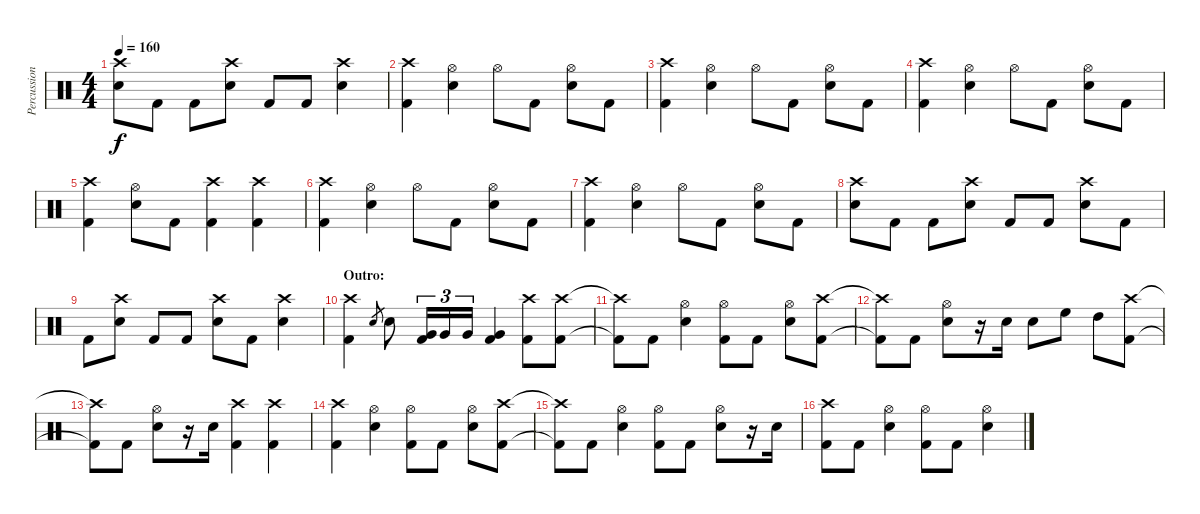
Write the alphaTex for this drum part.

\track ("Percussion" "Percussion") {instrument percussion}
\staff {score}
\articulation defaults
\ts (4 4)
\tempo 160
\clef neutral
\ks c
("Crash high (hit)" "Snare (hit) 2").8{dy f} "Kick (hit) 2".8 "Kick (hit) 2".8 ("Crash high (hit)" "Snare (hit) 2").8 "Kick (hit) 2".8 "Kick (hit) 2".8 ("Crash high (hit)" "Snare (hit) 2").4 |
("Crash high (hit)" "Kick (hit) 2").4 ("Hi-Hat (open)" "Snare (hit) 2").4 "Hi-Hat (open)".8 "Kick (hit) 2".8 ("Hi-Hat (open)" "Snare (hit) 2").8 "Kick (hit) 2".8 |
("Crash high (hit)" "Kick (hit) 2").4 ("Hi-Hat (open)" "Snare (hit) 2").4 "Hi-Hat (open)".8 "Kick (hit) 2".8 ("Hi-Hat (open)" "Snare (hit) 2").8 "Kick (hit) 2".8 |
("Crash high (hit)" "Kick (hit) 2").4 ("Hi-Hat (open)" "Snare (hit) 2").4 "Hi-Hat (open)".8 "Kick (hit) 2".8 ("Hi-Hat (open)" "Snare (hit) 2").8 "Kick (hit) 2".8 |
("Crash high (hit)" "Kick (hit) 2").4 ("Hi-Hat (open)" "Snare (hit) 2").8 "Kick (hit) 2".8 ("Crash high (hit)" "Kick (hit) 2").4 ("Crash high (hit)" "Kick (hit) 2").4 |
("Crash high (hit)" "Kick (hit) 2").4 ("Hi-Hat (open)" "Snare (hit) 2").4 "Hi-Hat (open)".8 "Kick (hit) 2".8 ("Hi-Hat (open)" "Snare (hit) 2").8 "Kick (hit) 2".8 |
("Crash high (hit)" "Kick (hit) 2").4 ("Hi-Hat (open)" "Snare (hit) 2").4 "Hi-Hat (open)".8 "Kick (hit) 2".8 ("Hi-Hat (open)" "Snare (hit) 2").8 "Kick (hit) 2".8 |
("Crash high (hit)" "Snare (hit) 2").8 "Kick (hit) 2".8 "Kick (hit) 2".8 ("Crash high (hit)" "Snare (hit) 2").8 "Kick (hit) 2".8 "Kick (hit) 2".8 ("Crash high (hit)" "Snare (hit) 2").8 "Kick (hit) 2".8 |
"Kick (hit) 2".8 ("Crash high (hit)" "Snare (hit) 2").8 "Kick (hit) 2".8 "Kick (hit) 2".8 ("Crash high (hit)" "Snare (hit) 2").8 "Kick (hit) 2".8 ("Crash high (hit)" "Snare (hit) 2").4 |
\section ("" "Outro:")
("Crash high (hit)" "Kick (hit) 2").4 "Snare (hit) 2".8{gr} "Snare (hit) 2".8 ("Very Low Tom (hit)" "Kick (hit) 2").16{tu (3 2)} "Very Low Tom (hit)".16{tu (3 2)} "Very Low Tom (hit)".16{tu (3 2)} ("Very Low Tom (hit)" "Kick (hit) 2").4 ("Crash high (hit)" "Kick (hit) 2").8 ("Crash high (hit)" "Kick (hit) 2").8 |
("Crash high (hit)"{t} "Kick (hit) 2"{t}).8 "Kick (hit) 2".8 ("Hi-Hat (open)" "Snare (hit) 2").4 ("Hi-Hat (open)" "Kick (hit) 2").8 "Kick (hit) 2".8 ("Hi-Hat (open)" "Snare (hit) 2").8 ("Crash high (hit)" "Kick (hit) 2").8 |
("Crash high (hit)"{t} "Kick (hit) 2"{t}).8 "Kick (hit) 2".8 ("Hi-Hat (open)" "Snare (hit) 2").8 r.16 "Snare (hit) 2".16 "Snare (hit) 2".8 "High Floor Tom (hit)".8 "High Tom (hit)".8 ("Crash high (hit)" "Kick (hit) 2").8 |
("Crash high (hit)"{t} "Kick (hit) 2"{t}).8 "Kick (hit) 2".8 ("Hi-Hat (open)" "Snare (hit) 2").8 r.16 "Snare (hit) 2".16 ("Crash high (hit)" "Kick (hit) 2").4 ("Crash high (hit)" "Kick (hit) 2").4 |
("Crash high (hit)" "Kick (hit) 2").4 ("Hi-Hat (open)" "Snare (hit) 2").4 ("Hi-Hat (open)" "Kick (hit) 2").8 "Kick (hit) 2".8 ("Hi-Hat (open)" "Snare (hit) 2").8 ("Crash high (hit)" "Kick (hit) 2").8 |
("Crash high (hit)"{t} "Kick (hit) 2"{t}).8 "Kick (hit) 2".8 ("Hi-Hat (open)" "Snare (hit) 2").4 ("Hi-Hat (open)" "Kick (hit) 2").8 "Kick (hit) 2".8 ("Hi-Hat (open)" "Snare (hit) 2").8 r.16 "Snare (hit) 2".16 |
("Crash high (hit)" "Kick (hit) 2").8 "Kick (hit) 2".8 ("Hi-Hat (open)" "Snare (hit) 2").4 ("Hi-Hat (open)" "Kick (hit) 2").8 "Kick (hit) 2".8 ("Hi-Hat (open)" "Snare (hit) 2").4
